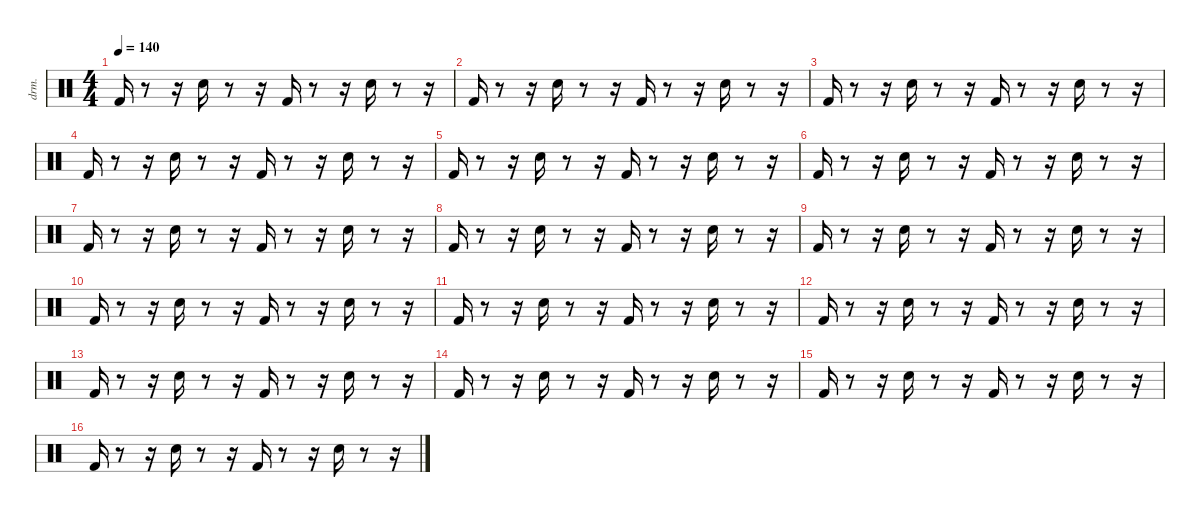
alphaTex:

\defaultSystemsLayout 4
\hideDynamics
\bracketExtendMode nobrackets
\otherSystemsTrackNameOrientation horizontal
\track ("Drums" "drm.") {instrument percussion}
\staff {score}
\articulation defaults
\ts (4 4)
\tempo 140
\clef neutral
\ks c "Kick (hit) 2".16{dy f}
r.8 r.16 "Snare (hit) 2".16 r.8 r.16 "Kick (hit) 2".16 r.8 r.16 "Snare (hit) 2".16 r.8 r.16 |
"Kick (hit) 2".16 r.8 r.16 "Snare (hit) 2".16 r.8 r.16 "Kick (hit) 2".16 r.8 r.16 "Snare (hit) 2".16 r.8 r.16 |
"Kick (hit) 2".16 r.8 r.16 "Snare (hit) 2".16 r.8 r.16 "Kick (hit) 2".16 r.8 r.16 "Snare (hit) 2".16 r.8 r.16 |
"Kick (hit) 2".16 r.8 r.16 "Snare (hit) 2".16 r.8 r.16 "Kick (hit) 2".16 r.8 r.16 "Snare (hit) 2".16 r.8 r.16 |
"Kick (hit) 2".16 r.8 r.16 "Snare (hit) 2".16 r.8 r.16 "Kick (hit) 2".16 r.8 r.16 "Snare (hit) 2".16 r.8 r.16 |
"Kick (hit) 2".16 r.8 r.16 "Snare (hit) 2".16 r.8 r.16 "Kick (hit) 2".16 r.8 r.16 "Snare (hit) 2".16 r.8 r.16 |
"Kick (hit) 2".16 r.8 r.16 "Snare (hit) 2".16 r.8 r.16 "Kick (hit) 2".16 r.8 r.16 "Snare (hit) 2".16 r.8 r.16 |
"Kick (hit) 2".16 r.8 r.16 "Snare (hit) 2".16 r.8 r.16 "Kick (hit) 2".16 r.8 r.16 "Snare (hit) 2".16 r.8 r.16 |
"Kick (hit) 2".16 r.8 r.16 "Snare (hit) 2".16 r.8 r.16 "Kick (hit) 2".16 r.8 r.16 "Snare (hit) 2".16 r.8 r.16 |
"Kick (hit) 2".16 r.8 r.16 "Snare (hit) 2".16 r.8 r.16 "Kick (hit) 2".16 r.8 r.16 "Snare (hit) 2".16 r.8 r.16 |
"Kick (hit) 2".16 r.8 r.16 "Snare (hit) 2".16 r.8 r.16 "Kick (hit) 2".16 r.8 r.16 "Snare (hit) 2".16 r.8 r.16 |
"Kick (hit) 2".16 r.8 r.16 "Snare (hit) 2".16 r.8 r.16 "Kick (hit) 2".16 r.8 r.16 "Snare (hit) 2".16 r.8 r.16 |
"Kick (hit) 2".16 r.8 r.16 "Snare (hit) 2".16 r.8 r.16 "Kick (hit) 2".16 r.8 r.16 "Snare (hit) 2".16 r.8 r.16 |
"Kick (hit) 2".16 r.8 r.16 "Snare (hit) 2".16 r.8 r.16 "Kick (hit) 2".16 r.8 r.16 "Snare (hit) 2".16 r.8 r.16 |
"Kick (hit) 2".16 r.8 r.16 "Snare (hit) 2".16 r.8 r.16 "Kick (hit) 2".16 r.8 r.16 "Snare (hit) 2".16 r.8 r.16 |
"Kick (hit) 2".16 r.8 r.16 "Snare (hit) 2".16 r.8 r.16 "Kick (hit) 2".16 r.8 r.16 "Snare (hit) 2".16 r.8 r.16
